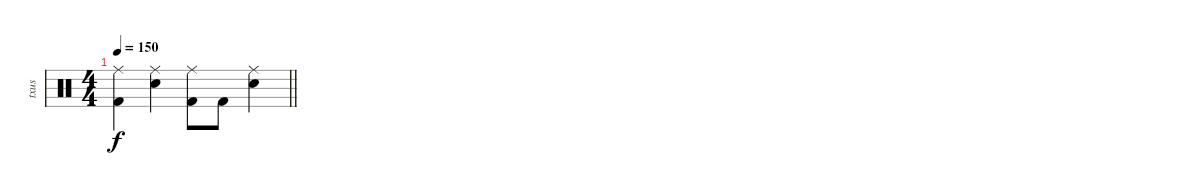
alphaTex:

\track ("txus" "txus") {instrument percussion}
\staff {score}
\articulation defaults
\ts (4 4)
\tempo 150
\clef neutral
\barLineRight lightlight
\ks c
("Kick (hit) 2" "Ride (middle)").4{dy f} ("Ride (middle)" "Electric Snare (hit)").4 ("Kick (hit) 2" "Ride (middle)").8 "Kick (hit) 2".8 ("Ride (middle)" "Electric Snare (hit)").4
